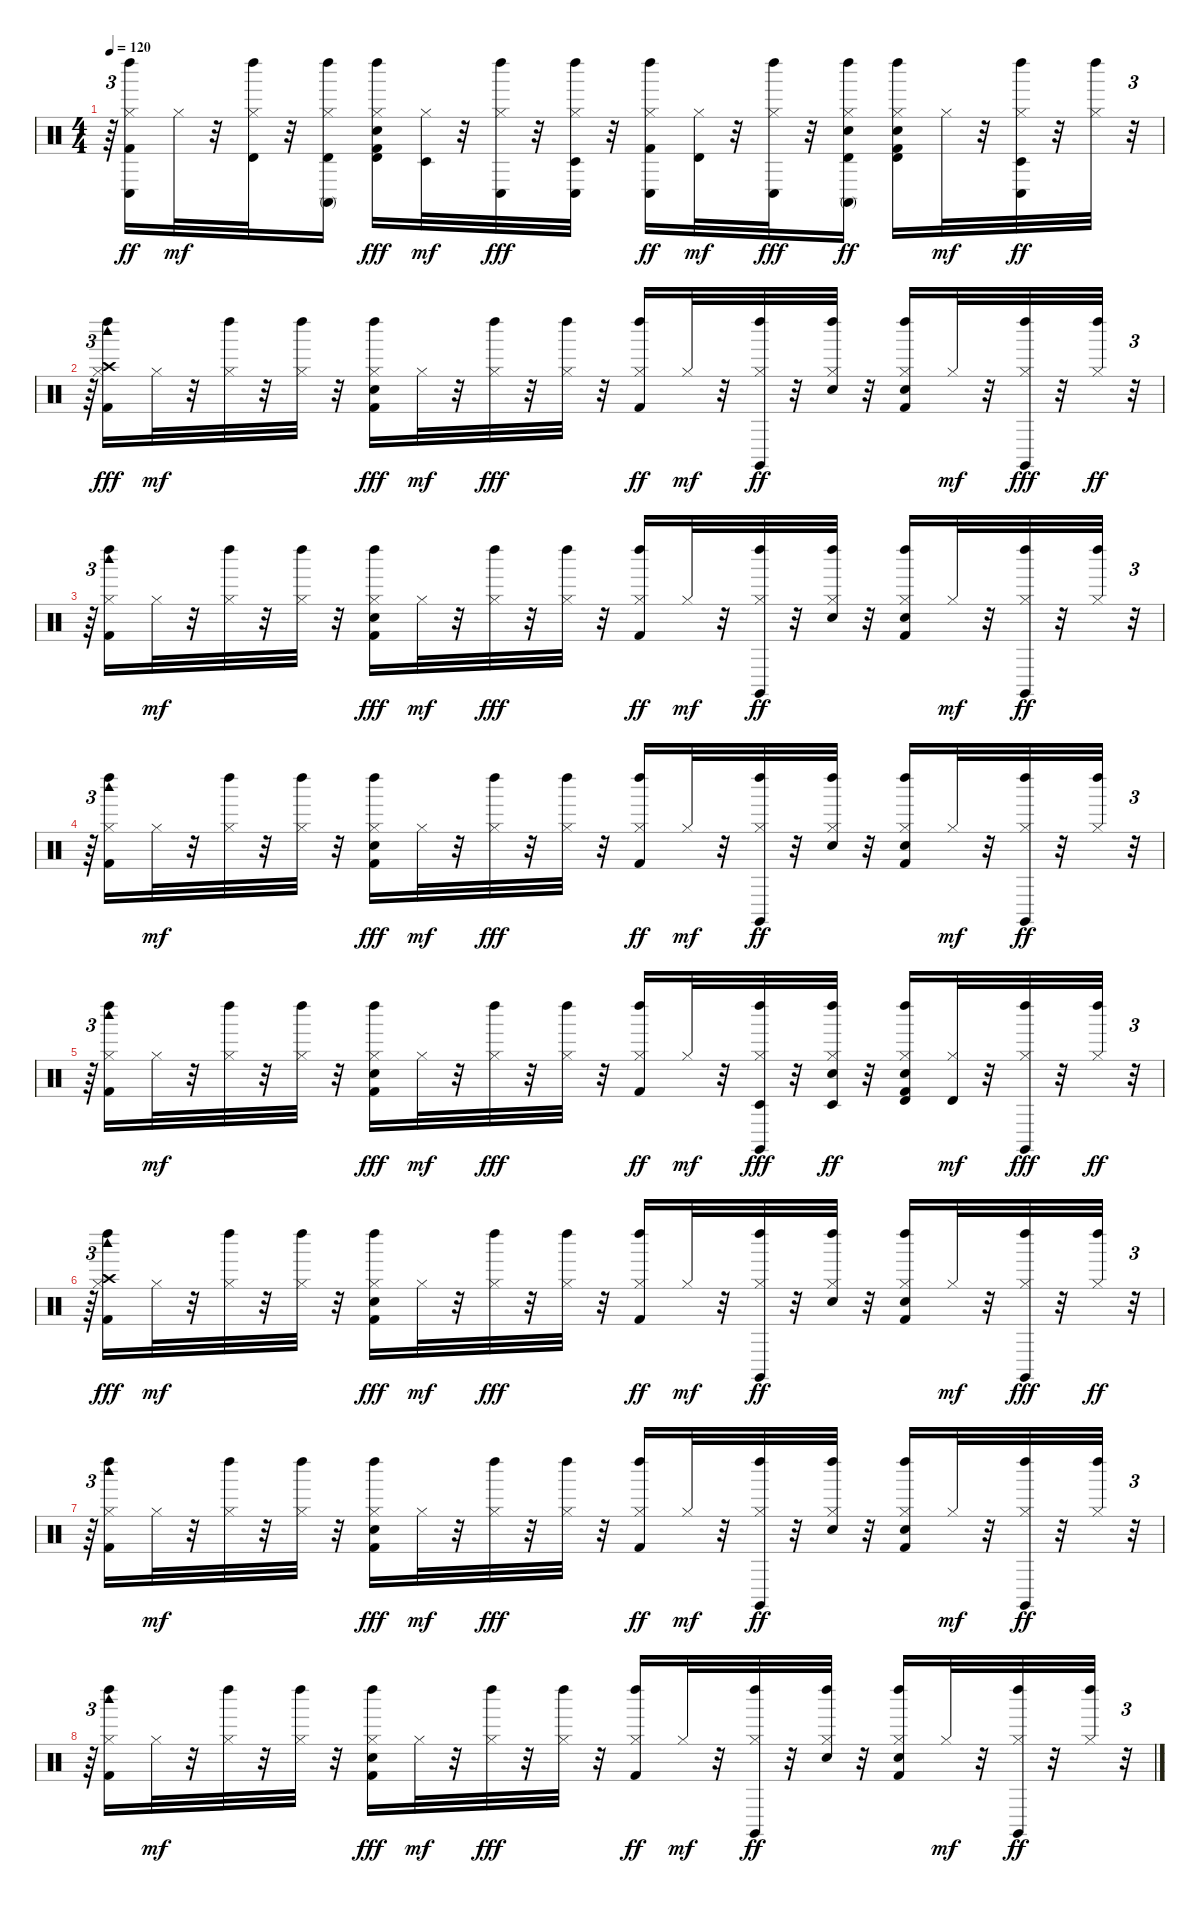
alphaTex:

\track "" {instrument percussion}
\staff {score}
\articulation defaults
\ts (4 4)
\tempo 120
\clef neutral
\ks c
r.64{tu (3 2) dy ff} ("Kick (hit) 2" "Conga low (hit)" "Hi-Hat (closed)" "Left Maraca (hit)").16 "Hi-Hat (closed)".32{dy mf} r.32 ("Timbale high (hit)" "Hi-Hat (closed)" "Left Maraca (hit)").32 r.32 ("Timbale high (hit)" "Conga high (mute)" "Hi-Hat (closed)" "Left Maraca (hit)").16 ("Kick (hit) 2" "Electric Snare (hit)" "Timbale high (hit)" "Hi-Hat (closed)" "Left Maraca (hit)").16{dy fff} ("Timbale low (hit)" "Hi-Hat (closed)").32{dy mf} r.32 ("Conga low (hit)" "Hi-Hat (closed)" "Left Maraca (hit)").32{dy fff} r.32 ("Timbale low (hit)" "Conga low (hit)" "Hi-Hat (closed)" "Left Maraca (hit)").32 r.32 ("Kick (hit) 2" "Conga low (hit)" "Hi-Hat (closed)" "Left Maraca (hit)").16{dy ff} ("Timbale high (hit)" "Hi-Hat (closed)").32{dy mf} r.32 ("Conga low (hit)" "Hi-Hat (closed)" "Left Maraca (hit)").32{dy fff} r.32 ("Electric Snare (hit)" "Timbale high (hit)" "Conga high (mute)" "Hi-Hat (closed)" "Left Maraca (hit)").16{dy ff} ("Kick (hit) 2" "Electric Snare (hit)" "Timbale high (hit)" "Hi-Hat (closed)" "Left Maraca (hit)").16 "Hi-Hat (closed)".32{dy mf} r.32 ("Timbale low (hit)" "Conga low (hit)" "Hi-Hat (closed)" "Left Maraca (hit)").32{dy ff} r.32 ("Hi-Hat (closed)" "Left Maraca (hit)").32 r.32{tu (3 2)} |
r.64{tu (3 2)} ("Kick (hit) 2" "Hi-Hat (closed)" "Left Maraca (hit)" "Crash high (hit)" "Woodblock high (hit)").16{dy fff} "Hi-Hat (closed)".32{dy mf} r.32 ("Hi-Hat (closed)" "Left Maraca (hit)").32 r.32 ("Hi-Hat (closed)" "Left Maraca (hit)").32 r.32 ("Kick (hit) 2" "Electric Snare (hit)" "Hi-Hat (closed)" "Left Maraca (hit)").16{dy fff} "Hi-Hat (closed)".32{dy mf} r.32 ("Hi-Hat (closed)" "Left Maraca (hit)").32{dy fff} r.32 ("Hi-Hat (closed)" "Left Maraca (hit)").32 r.32 ("Kick (hit) 2" "Hi-Hat (closed)" "Left Maraca (hit)").16{dy ff} "Hi-Hat (closed)".32{dy mf} r.32 ("Hi-Hat (closed)" "Left Maraca (hit)" "Claves (hit)").32{dy ff} r.32 ("Electric Snare (hit)" "Hi-Hat (closed)" "Left Maraca (hit)").32 r.32 ("Kick (hit) 2" "Electric Snare (hit)" "Hi-Hat (closed)" "Left Maraca (hit)").16 "Hi-Hat (closed)".32{dy mf} r.32 ("Hi-Hat (closed)" "Left Maraca (hit)" "Claves (hit)").32{dy fff} r.32 ("Hi-Hat (closed)" "Left Maraca (hit)").32{dy ff} r.32{tu (3 2)} |
r.64{tu (3 2)} ("Kick (hit) 2" "Hi-Hat (closed)" "Left Maraca (hit)" "Woodblock high (hit)").16 "Hi-Hat (closed)".32{dy mf} r.32 ("Hi-Hat (closed)" "Left Maraca (hit)").32 r.32 ("Hi-Hat (closed)" "Left Maraca (hit)").32 r.32 ("Kick (hit) 2" "Electric Snare (hit)" "Hi-Hat (closed)" "Left Maraca (hit)").16{dy fff} "Hi-Hat (closed)".32{dy mf} r.32 ("Hi-Hat (closed)" "Left Maraca (hit)").32{dy fff} r.32 ("Hi-Hat (closed)" "Left Maraca (hit)").32 r.32 ("Kick (hit) 2" "Hi-Hat (closed)" "Left Maraca (hit)").16{dy ff} "Hi-Hat (closed)".32{dy mf} r.32 ("Hi-Hat (closed)" "Left Maraca (hit)" "Claves (hit)").32{dy ff} r.32 ("Electric Snare (hit)" "Hi-Hat (closed)" "Left Maraca (hit)").32 r.32 ("Kick (hit) 2" "Electric Snare (hit)" "Hi-Hat (closed)" "Left Maraca (hit)").16 "Hi-Hat (closed)".32{dy mf} r.32 ("Hi-Hat (closed)" "Left Maraca (hit)" "Claves (hit)").32{dy ff} r.32 ("Hi-Hat (closed)" "Left Maraca (hit)").32 r.32{tu (3 2)} |
r.64{tu (3 2)} ("Kick (hit) 2" "Hi-Hat (closed)" "Left Maraca (hit)" "Woodblock high (hit)").16 "Hi-Hat (closed)".32{dy mf} r.32 ("Hi-Hat (closed)" "Left Maraca (hit)").32 r.32 ("Hi-Hat (closed)" "Left Maraca (hit)").32 r.32 ("Kick (hit) 2" "Electric Snare (hit)" "Hi-Hat (closed)" "Left Maraca (hit)").16{dy fff} "Hi-Hat (closed)".32{dy mf} r.32 ("Hi-Hat (closed)" "Left Maraca (hit)").32{dy fff} r.32 ("Hi-Hat (closed)" "Left Maraca (hit)").32 r.32 ("Kick (hit) 2" "Hi-Hat (closed)" "Left Maraca (hit)").16{dy ff} "Hi-Hat (closed)".32{dy mf} r.32 ("Hi-Hat (closed)" "Left Maraca (hit)" "Claves (hit)").32{dy ff} r.32 ("Electric Snare (hit)" "Hi-Hat (closed)" "Left Maraca (hit)").32 r.32 ("Kick (hit) 2" "Electric Snare (hit)" "Hi-Hat (closed)" "Left Maraca (hit)").16 "Hi-Hat (closed)".32{dy mf} r.32 ("Hi-Hat (closed)" "Left Maraca (hit)" "Claves (hit)").32{dy ff} r.32 ("Hi-Hat (closed)" "Left Maraca (hit)").32 r.32{tu (3 2)} |
r.64{tu (3 2)} ("Kick (hit) 2" "Hi-Hat (closed)" "Left Maraca (hit)" "Woodblock high (hit)").16 "Hi-Hat (closed)".32{dy mf} r.32 ("Hi-Hat (closed)" "Left Maraca (hit)").32 r.32 ("Hi-Hat (closed)" "Left Maraca (hit)").32 r.32 ("Kick (hit) 2" "Electric Snare (hit)" "Hi-Hat (closed)" "Left Maraca (hit)").16{dy fff} "Hi-Hat (closed)".32{dy mf} r.32 ("Hi-Hat (closed)" "Left Maraca (hit)").32{dy fff} r.32 ("Hi-Hat (closed)" "Left Maraca (hit)").32 r.32 ("Kick (hit) 2" "Hi-Hat (closed)" "Left Maraca (hit)").16{dy ff} "Hi-Hat (closed)".32{dy mf} r.32 ("Timbale low (hit)" "Hi-Hat (closed)" "Left Maraca (hit)" "Claves (hit)").32{dy fff} r.32 ("Electric Snare (hit)" "Timbale low (hit)" "Hi-Hat (closed)" "Left Maraca (hit)").32{dy ff} r.32 ("Kick (hit) 2" "Electric Snare (hit)" "Timbale high (hit)" "Hi-Hat (closed)" "Left Maraca (hit)").16 ("Timbale high (hit)" "Hi-Hat (closed)").32{dy mf} r.32 ("Hi-Hat (closed)" "Left Maraca (hit)" "Claves (hit)").32{dy fff} r.32 ("Hi-Hat (closed)" "Left Maraca (hit)").32{dy ff} r.32{tu (3 2)} |
r.64{tu (3 2)} ("Kick (hit) 2" "Hi-Hat (closed)" "Left Maraca (hit)" "Crash high (hit)" "Woodblock high (hit)").16{dy fff} "Hi-Hat (closed)".32{dy mf} r.32 ("Hi-Hat (closed)" "Left Maraca (hit)").32 r.32 ("Hi-Hat (closed)" "Left Maraca (hit)").32 r.32 ("Kick (hit) 2" "Electric Snare (hit)" "Hi-Hat (closed)" "Left Maraca (hit)").16{dy fff} "Hi-Hat (closed)".32{dy mf} r.32 ("Hi-Hat (closed)" "Left Maraca (hit)").32{dy fff} r.32 ("Hi-Hat (closed)" "Left Maraca (hit)").32 r.32 ("Kick (hit) 2" "Hi-Hat (closed)" "Left Maraca (hit)").16{dy ff} "Hi-Hat (closed)".32{dy mf} r.32 ("Hi-Hat (closed)" "Left Maraca (hit)" "Claves (hit)").32{dy ff} r.32 ("Electric Snare (hit)" "Hi-Hat (closed)" "Left Maraca (hit)").32 r.32 ("Kick (hit) 2" "Electric Snare (hit)" "Hi-Hat (closed)" "Left Maraca (hit)").16 "Hi-Hat (closed)".32{dy mf} r.32 ("Hi-Hat (closed)" "Left Maraca (hit)" "Claves (hit)").32{dy fff} r.32 ("Hi-Hat (closed)" "Left Maraca (hit)").32{dy ff} r.32{tu (3 2)} |
r.64{tu (3 2)} ("Kick (hit) 2" "Hi-Hat (closed)" "Left Maraca (hit)" "Woodblock high (hit)").16 "Hi-Hat (closed)".32{dy mf} r.32 ("Hi-Hat (closed)" "Left Maraca (hit)").32 r.32 ("Hi-Hat (closed)" "Left Maraca (hit)").32 r.32 ("Kick (hit) 2" "Electric Snare (hit)" "Hi-Hat (closed)" "Left Maraca (hit)").16{dy fff} "Hi-Hat (closed)".32{dy mf} r.32 ("Hi-Hat (closed)" "Left Maraca (hit)").32{dy fff} r.32 ("Hi-Hat (closed)" "Left Maraca (hit)").32 r.32 ("Kick (hit) 2" "Hi-Hat (closed)" "Left Maraca (hit)").16{dy ff} "Hi-Hat (closed)".32{dy mf} r.32 ("Hi-Hat (closed)" "Left Maraca (hit)" "Claves (hit)").32{dy ff} r.32 ("Electric Snare (hit)" "Hi-Hat (closed)" "Left Maraca (hit)").32 r.32 ("Kick (hit) 2" "Electric Snare (hit)" "Hi-Hat (closed)" "Left Maraca (hit)").16 "Hi-Hat (closed)".32{dy mf} r.32 ("Hi-Hat (closed)" "Left Maraca (hit)" "Claves (hit)").32{dy ff} r.32 ("Hi-Hat (closed)" "Left Maraca (hit)").32 r.32{tu (3 2)} |
r.64{tu (3 2)} ("Kick (hit) 2" "Hi-Hat (closed)" "Left Maraca (hit)" "Woodblock high (hit)").16 "Hi-Hat (closed)".32{dy mf} r.32 ("Hi-Hat (closed)" "Left Maraca (hit)").32 r.32 ("Hi-Hat (closed)" "Left Maraca (hit)").32 r.32 ("Kick (hit) 2" "Electric Snare (hit)" "Hi-Hat (closed)" "Left Maraca (hit)").16{dy fff} "Hi-Hat (closed)".32{dy mf} r.32 ("Hi-Hat (closed)" "Left Maraca (hit)").32{dy fff} r.32 ("Hi-Hat (closed)" "Left Maraca (hit)").32 r.32 ("Kick (hit) 2" "Hi-Hat (closed)" "Left Maraca (hit)").16{dy ff} "Hi-Hat (closed)".32{dy mf} r.32 ("Hi-Hat (closed)" "Left Maraca (hit)" "Claves (hit)").32{dy ff} r.32 ("Electric Snare (hit)" "Hi-Hat (closed)" "Left Maraca (hit)").32 r.32 ("Kick (hit) 2" "Electric Snare (hit)" "Hi-Hat (closed)" "Left Maraca (hit)").16 "Hi-Hat (closed)".32{dy mf} r.32 ("Hi-Hat (closed)" "Left Maraca (hit)" "Claves (hit)").32{dy ff} r.32 ("Hi-Hat (closed)" "Left Maraca (hit)").32 r.32{tu (3 2)}
